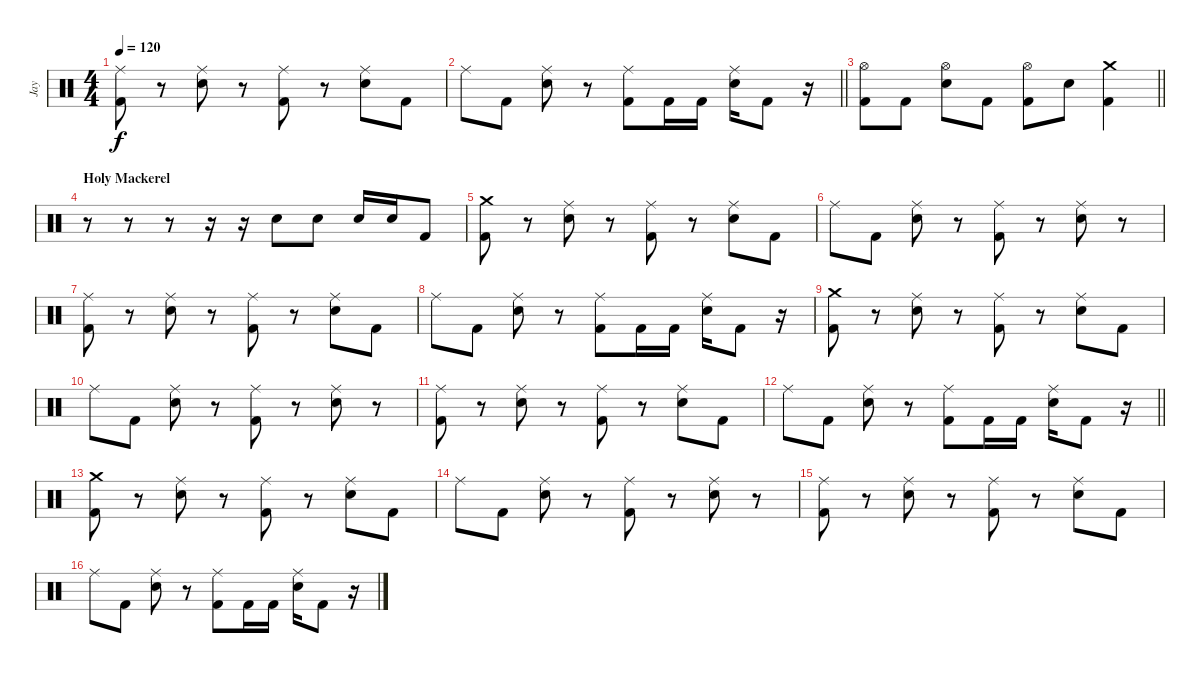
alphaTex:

\track ("Jay" "Jay") {instrument percussion}
\staff {score}
\articulation defaults
\ts (4 4)
\tempo 120
\clef neutral
\ks c
("Kick (hit) 2" "Ride (middle)").8{dy f} r.8 ("Electric Snare (hit)" "Ride (middle)").8 r.8 ("Kick (hit) 2" "Ride (middle)").8 r.8 ("Electric Snare (hit)" "Ride (middle)").8 "Kick (hit) 2".8 |
\barLineRight lightlight "Ride (middle)".8 "Kick (hit) 2".8
("Electric Snare (hit)" "Ride (middle)").8 r.8 ("Kick (hit) 2" "Ride (middle)").8 "Kick (hit) 2".16 "Kick (hit) 2".16 ("Electric Snare (hit)" "Ride (middle)").16 "Kick (hit) 2".8 r.16 |
\barLineRight lightlight
("Kick (hit) 2" "Hi-Hat (open)").8 "Kick (hit) 2".8 ("Electric Snare (hit)" "Hi-Hat (open)").8 "Kick (hit) 2".8 ("Kick (hit) 2" "Hi-Hat (open)").8 "Electric Snare (hit)".8 ("Kick (hit) 2" "Crash medium (hit)").4 |
\section ("" "Holy Mackerel")
r.8 r.8 r.8 r.16 r.16 "Electric Snare (hit)".8 "Electric Snare (hit)".8 "Electric Snare (hit)".16 "Electric Snare (hit)".16 "Kick (hit) 2".8 |
("Kick (hit) 2" "Crash medium (hit)").8 r.8 ("Electric Snare (hit)" "Ride (middle)").8 r.8 ("Kick (hit) 2" "Ride (middle)").8 r.8 ("Electric Snare (hit)" "Ride (middle)").8 "Kick (hit) 2".8 |
"Ride (middle)".8 "Kick (hit) 2".8 ("Electric Snare (hit)" "Ride (middle)").8 r.8 ("Kick (hit) 2" "Ride (middle)").8 r.8 ("Electric Snare (hit)" "Ride (middle)").8 r.8 |
("Kick (hit) 2" "Ride (middle)").8 r.8 ("Electric Snare (hit)" "Ride (middle)").8 r.8 ("Kick (hit) 2" "Ride (middle)").8 r.8 ("Electric Snare (hit)" "Ride (middle)").8 "Kick (hit) 2".8 |
"Ride (middle)".8 "Kick (hit) 2".8 ("Electric Snare (hit)" "Ride (middle)").8 r.8 ("Kick (hit) 2" "Ride (middle)").8 "Kick (hit) 2".16 "Kick (hit) 2".16 ("Electric Snare (hit)" "Ride (middle)").16 "Kick (hit) 2".8 r.16 |
("Kick (hit) 2" "Crash medium (hit)").8 r.8 ("Electric Snare (hit)" "Ride (middle)").8 r.8 ("Kick (hit) 2" "Ride (middle)").8 r.8 ("Electric Snare (hit)" "Ride (middle)").8 "Kick (hit) 2".8 |
"Ride (middle)".8 "Kick (hit) 2".8 ("Electric Snare (hit)" "Ride (middle)").8 r.8 ("Kick (hit) 2" "Ride (middle)").8 r.8 ("Electric Snare (hit)" "Ride (middle)").8 r.8 |
("Kick (hit) 2" "Ride (middle)").8 r.8 ("Electric Snare (hit)" "Ride (middle)").8 r.8 ("Kick (hit) 2" "Ride (middle)").8 r.8 ("Electric Snare (hit)" "Ride (middle)").8 "Kick (hit) 2".8 |
\barLineRight lightlight "Ride (middle)".8 "Kick (hit) 2".8
("Electric Snare (hit)" "Ride (middle)").8 r.8 ("Kick (hit) 2" "Ride (middle)").8 "Kick (hit) 2".16 "Kick (hit) 2".16 ("Electric Snare (hit)" "Ride (middle)").16 "Kick (hit) 2".8 r.16 |
("Kick (hit) 2" "Crash medium (hit)").8 r.8 ("Electric Snare (hit)" "Ride (middle)").8 r.8 ("Kick (hit) 2" "Ride (middle)").8 r.8 ("Electric Snare (hit)" "Ride (middle)").8 "Kick (hit) 2".8 |
"Ride (middle)".8 "Kick (hit) 2".8 ("Electric Snare (hit)" "Ride (middle)").8 r.8 ("Kick (hit) 2" "Ride (middle)").8 r.8 ("Electric Snare (hit)" "Ride (middle)").8 r.8 |
("Kick (hit) 2" "Ride (middle)").8 r.8 ("Electric Snare (hit)" "Ride (middle)").8 r.8 ("Kick (hit) 2" "Ride (middle)").8 r.8 ("Electric Snare (hit)" "Ride (middle)").8 "Kick (hit) 2".8 |
"Ride (middle)".8 "Kick (hit) 2".8 ("Electric Snare (hit)" "Ride (middle)").8 r.8 ("Kick (hit) 2" "Ride (middle)").8 "Kick (hit) 2".16 "Kick (hit) 2".16 ("Electric Snare (hit)" "Ride (middle)").16 "Kick (hit) 2".8 r.16
